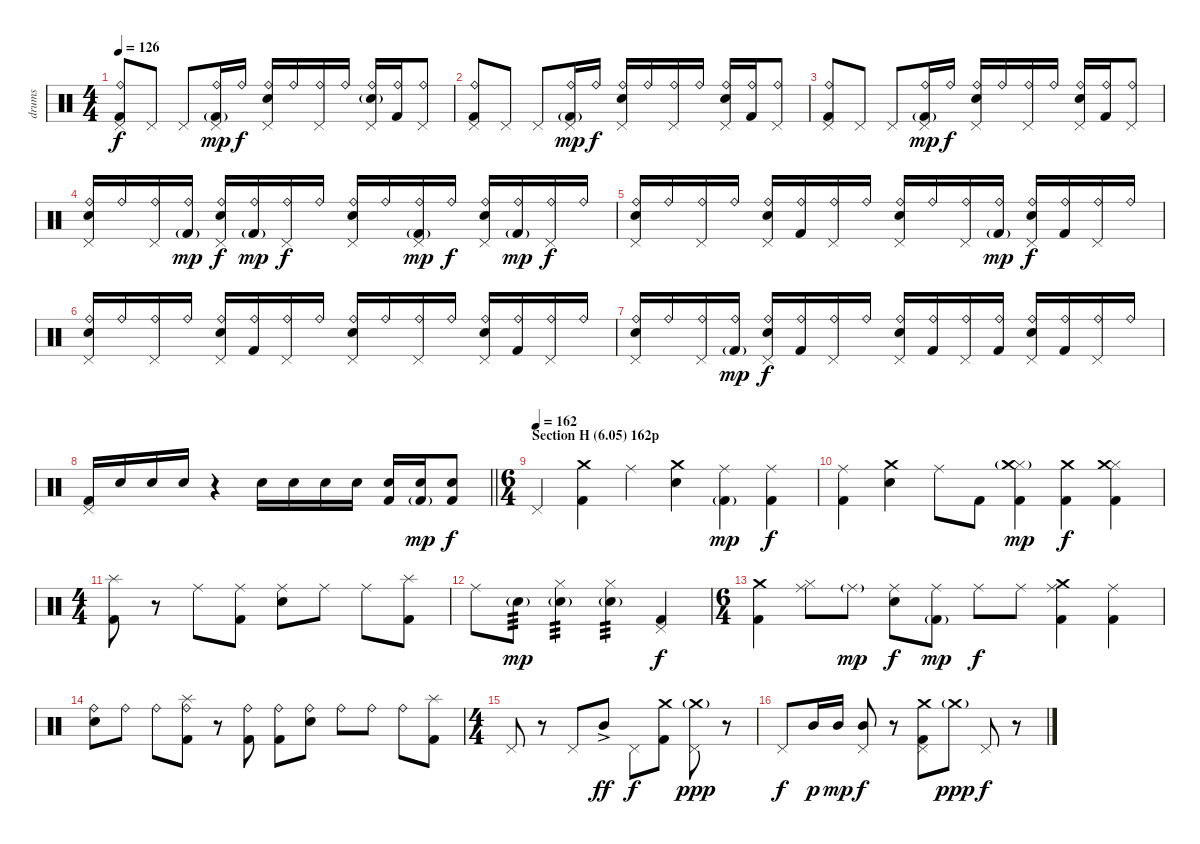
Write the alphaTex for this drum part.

\track ("drums" "drums") {instrument percussion}
\staff {score}
\articulation defaults
\ts (4 4)
\tempo 126
\clef neutral
\ks c
("Pedal Hi-Hat (hit)" "Ride (bell)" "Kick (hit) 2").8{dy f} "Pedal Hi-Hat (hit)".8 "Pedal Hi-Hat (hit)".8 ("Pedal Hi-Hat (hit)" "Ride (bell)" "Kick (hit) 2"{g}).16{dy mp} "Ride (bell)".16{dy f} ("Pedal Hi-Hat (hit)" "Ride (bell)" "Electric Snare (hit)").16 "Ride (bell)".16 ("Pedal Hi-Hat (hit)" "Ride (bell)").16 "Ride (bell)".16 ("Pedal Hi-Hat (hit)" "Ride (bell)" "Electric Snare (hit)"{g}).16 ("Ride (bell)" "Kick (hit) 2").16 ("Pedal Hi-Hat (hit)" "Ride (bell)").8 |
("Pedal Hi-Hat (hit)" "Ride (bell)" "Kick (hit) 2").8 "Pedal Hi-Hat (hit)".8 "Pedal Hi-Hat (hit)".8 ("Pedal Hi-Hat (hit)" "Ride (bell)" "Kick (hit) 2"{g}).16{dy mp} "Ride (bell)".16{dy f} ("Pedal Hi-Hat (hit)" "Ride (bell)" "Electric Snare (hit)").16 "Ride (bell)".16 ("Pedal Hi-Hat (hit)" "Ride (bell)").16 "Ride (bell)".16 ("Pedal Hi-Hat (hit)" "Ride (bell)" "Electric Snare (hit)").16 ("Ride (bell)" "Kick (hit) 2").16 ("Pedal Hi-Hat (hit)" "Ride (bell)").8 |
("Pedal Hi-Hat (hit)" "Ride (bell)" "Kick (hit) 2").8 "Pedal Hi-Hat (hit)".8 "Pedal Hi-Hat (hit)".8 ("Pedal Hi-Hat (hit)" "Ride (bell)" "Kick (hit) 2"{g}).16{dy mp} "Ride (bell)".16{dy f} ("Pedal Hi-Hat (hit)" "Ride (bell)" "Electric Snare (hit)").16 "Ride (bell)".16 ("Pedal Hi-Hat (hit)" "Ride (bell)").16 "Ride (bell)".16 ("Pedal Hi-Hat (hit)" "Ride (bell)" "Electric Snare (hit)").16 ("Ride (bell)" "Kick (hit) 2").16 ("Pedal Hi-Hat (hit)" "Ride (bell)").8 |
("Pedal Hi-Hat (hit)" "Ride (bell)" "Electric Snare (hit)").16 "Ride (bell)".16 ("Pedal Hi-Hat (hit)" "Ride (bell)").16 ("Ride (bell)" "Kick (hit) 2"{g}).16{dy mp} ("Pedal Hi-Hat (hit)" "Ride (bell)" "Electric Snare (hit)").16{dy f} ("Ride (bell)" "Kick (hit) 2"{g}).16{dy mp} ("Pedal Hi-Hat (hit)" "Ride (bell)").16{dy f} "Ride (bell)".16 ("Pedal Hi-Hat (hit)" "Ride (bell)" "Electric Snare (hit)").16 "Ride (bell)".16 ("Pedal Hi-Hat (hit)" "Ride (bell)" "Kick (hit) 2"{g}).16{dy mp} "Ride (bell)".16{dy f} ("Pedal Hi-Hat (hit)" "Ride (bell)" "Electric Snare (hit)").16 ("Ride (bell)" "Kick (hit) 2"{g}).16{dy mp} ("Pedal Hi-Hat (hit)" "Ride (bell)").16{dy f} "Ride (bell)".16 |
("Pedal Hi-Hat (hit)" "Ride (bell)" "Electric Snare (hit)").16 "Ride (bell)".16 ("Pedal Hi-Hat (hit)" "Ride (bell)").16 "Ride (bell)".16 ("Pedal Hi-Hat (hit)" "Ride (bell)" "Electric Snare (hit)").16 ("Ride (bell)" "Kick (hit) 2").16 ("Pedal Hi-Hat (hit)" "Ride (bell)").16 "Ride (bell)".16 ("Pedal Hi-Hat (hit)" "Ride (bell)" "Electric Snare (hit)").16 "Ride (bell)".16 ("Pedal Hi-Hat (hit)" "Ride (bell)").16 ("Ride (bell)" "Kick (hit) 2"{g}).16{dy mp} ("Pedal Hi-Hat (hit)" "Ride (bell)" "Electric Snare (hit)").16{dy f} ("Ride (bell)" "Kick (hit) 2").16 ("Pedal Hi-Hat (hit)" "Ride (bell)").16 "Ride (bell)".16 |
("Pedal Hi-Hat (hit)" "Ride (bell)" "Electric Snare (hit)").16 "Ride (bell)".16 ("Pedal Hi-Hat (hit)" "Ride (bell)").16 "Ride (bell)".16 ("Pedal Hi-Hat (hit)" "Ride (bell)" "Electric Snare (hit)").16 ("Ride (bell)" "Kick (hit) 2").16 ("Pedal Hi-Hat (hit)" "Ride (bell)").16 "Ride (bell)".16 ("Pedal Hi-Hat (hit)" "Ride (bell)" "Electric Snare (hit)").16 "Ride (bell)".16 ("Pedal Hi-Hat (hit)" "Ride (bell)").16 "Ride (bell)".16 ("Pedal Hi-Hat (hit)" "Ride (bell)" "Electric Snare (hit)").16 ("Ride (bell)" "Kick (hit) 2").16 ("Pedal Hi-Hat (hit)" "Ride (bell)").16 "Ride (bell)".16 |
("Pedal Hi-Hat (hit)" "Ride (bell)" "Electric Snare (hit)").16 "Ride (bell)".16 ("Pedal Hi-Hat (hit)" "Ride (bell)").16 ("Ride (bell)" "Kick (hit) 2"{g}).16{dy mp} ("Pedal Hi-Hat (hit)" "Ride (bell)" "Electric Snare (hit)").16{dy f} ("Ride (bell)" "Kick (hit) 2").16 ("Pedal Hi-Hat (hit)" "Ride (bell)").16 "Ride (bell)".16 ("Pedal Hi-Hat (hit)" "Ride (bell)" "Electric Snare (hit)").16 ("Ride (bell)" "Kick (hit) 2").16 ("Pedal Hi-Hat (hit)" "Ride (bell)").16 ("Ride (bell)" "Kick (hit) 2").16 ("Pedal Hi-Hat (hit)" "Ride (bell)" "Electric Snare (hit)").16 ("Ride (bell)" "Kick (hit) 2").16 ("Pedal Hi-Hat (hit)" "Ride (bell)").16 "Ride (bell)".16 |
\barLineRight lightlight
("Pedal Hi-Hat (hit)" "Kick (hit) 2").16 "Electric Snare (hit)".16 "Electric Snare (hit)".16 "Electric Snare (hit)".16 r.4 "Electric Snare (hit)".16 "Electric Snare (hit)".16 "Electric Snare (hit)".16 "Electric Snare (hit)".16 ("Electric Snare (hit)" "Kick (hit) 2").16 ("Electric Snare (hit)" "Kick (hit) 2"{g}).16{dy mp} ("Electric Snare (hit)" "Kick (hit) 2").8{dy f} |
\ts (6 4)
\section ("" "Section H (6.05) 162p")
\tempo (162)
"Pedal Hi-Hat (hit)".4 ("Crash medium (hit)" "Kick (hit) 2").4 "Ride (middle)".4 ("Crash medium (hit)" "Electric Snare (hit)").4 ("Ride (middle)" "Kick (hit) 2"{g}).4{dy mp} ("Ride (middle)" "Kick (hit) 2").4{dy f} |
("Ride (middle)" "Kick (hit) 2").4 ("Crash medium (hit)" "Electric Snare (hit)").4 "Ride (middle)".8 "Kick (hit) 2".8 ("Hi-Hat (closed)" "Crash medium (hit)"{g} "Kick (hit) 2").4{dy mp} ("Crash medium (hit)" "Kick (hit) 2").4{dy f} ("Hi-Hat (closed)" "Crash medium (hit)" "Kick (hit) 2").4 |
\ts (4 4)
("Splash (hit)" "Kick (hit) 2").8 r.8 "Ride (middle)".8 ("Ride (middle)" "Kick (hit) 2").8 ("Ride (middle)" "Electric Snare (hit)").8 "Ride (middle)".8 "Ride (middle)".8 ("Splash (hit)" "Kick (hit) 2").8 |
"Ride (middle)".8 "Electric Snare (hit)"{g}.8{tp 3 dy mp} ("Hi-Hat (closed)" "Electric Snare (hit)"{g}).4{tp 3} ("Hi-Hat (closed)" "Electric Snare (hit)"{g}).4{tp 3} ("Pedal Hi-Hat (hit)" "Kick (hit) 2").4{dy f} |
\ts (6 4)
("Crash medium (hit)" "Kick (hit) 2").4 ("Ride (middle)" "Hi-Hat (closed)").8 "Ride (middle)"{g}.8{dy mp} ("Ride (middle)" "Electric Snare (hit)").8{dy f} ("Ride (middle)" "Kick (hit) 2"{g}).8{dy mp} "Ride (middle)".8{dy f} "Ride (middle)".8 ("Ride (middle)" "Crash medium (hit)" "Kick (hit) 2").4 ("Ride (middle)" "Kick (hit) 2").4 |
("Ride (bell)" "Electric Snare (hit)").8 "Ride (bell)".8 "Ride (bell)".8 ("Ride (bell)" "Splash (hit)" "Kick (hit) 2").8 r.8 ("Ride (bell)" "Kick (hit) 2").8 ("Ride (bell)" "Kick (hit) 2").8 ("Ride (bell)" "Electric Snare (hit)").8 "Ride (bell)".8 "Ride (bell)".8 "Ride (bell)".8 ("Splash (hit)" "Kick (hit) 2").8 |
\ts (4 4)
"Pedal Hi-Hat (hit)".8 r.8 "Pedal Hi-Hat (hit)".8 "Mid Tom (hit)"{ac}.8{dy ff} "Pedal Hi-Hat (hit)".8{dy f} ("Crash medium (hit)" "Kick (hit) 2").8 ("Pedal Hi-Hat (hit)" "Crash medium (hit)"{g}).8{dy ppp} r.8 |
"Pedal Hi-Hat (hit)".8{dy f} "Mid Tom (hit)".16{dy p} "Mid Tom (hit)".16{dy mp} ("Pedal Hi-Hat (hit)" "Mid Tom (hit)").8{dy f} r.8 ("Pedal Hi-Hat (hit)" "Crash medium (hit)" "Kick (hit) 2").8 "Crash medium (hit)"{g}.8{dy ppp} "Pedal Hi-Hat (hit)".8{dy f} r.8
